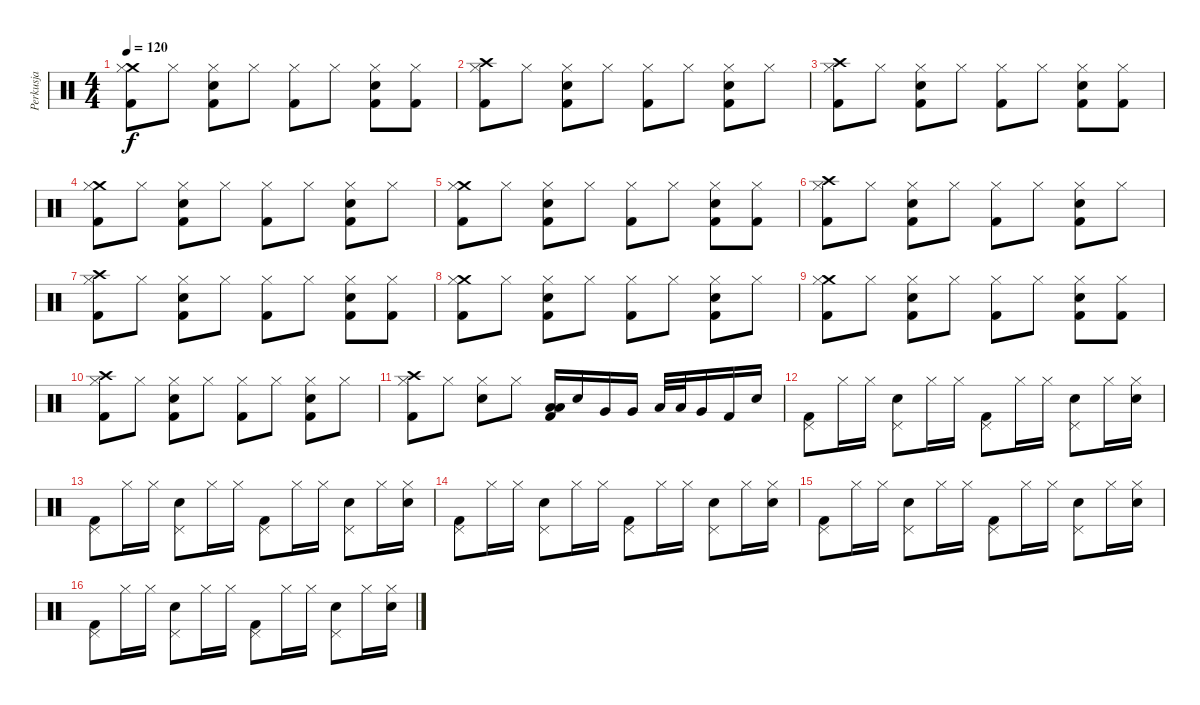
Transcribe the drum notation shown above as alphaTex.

\track ("Perkusja" "Perkusja") {instrument percussion}
\staff {score}
\articulation defaults
\ts (4 4)
\tempo 120
\clef neutral
\ks c
("Crash medium (hit)" "Hi-Hat (closed)" "Kick (hit) 2").8{dy f} "Hi-Hat (closed)".8 ("Hi-Hat (closed)" "Electric Snare (hit)" "Kick (hit) 2").8 "Hi-Hat (closed)".8 ("Hi-Hat (closed)" "Kick (hit) 2").8 "Hi-Hat (closed)".8 ("Hi-Hat (closed)" "Electric Snare (hit)" "Kick (hit) 2").8 ("Hi-Hat (closed)" "Kick (hit) 2").8 |
("Crash high (hit)" "Hi-Hat (closed)" "Kick (hit) 2").8 "Hi-Hat (closed)".8 ("Hi-Hat (closed)" "Electric Snare (hit)" "Kick (hit) 2").8 "Hi-Hat (closed)".8 ("Hi-Hat (closed)" "Kick (hit) 2").8 "Hi-Hat (closed)".8 ("Hi-Hat (closed)" "Electric Snare (hit)" "Kick (hit) 2").8 "Hi-Hat (closed)".8 |
("Crash high (hit)" "Hi-Hat (closed)" "Kick (hit) 2").8 "Hi-Hat (closed)".8 ("Hi-Hat (closed)" "Electric Snare (hit)" "Kick (hit) 2").8 "Hi-Hat (closed)".8 ("Hi-Hat (closed)" "Kick (hit) 2").8 "Hi-Hat (closed)".8 ("Hi-Hat (closed)" "Electric Snare (hit)" "Kick (hit) 2").8 ("Hi-Hat (closed)" "Kick (hit) 2").8 |
("Crash medium (hit)" "Hi-Hat (closed)" "Kick (hit) 2").8 "Hi-Hat (closed)".8 ("Hi-Hat (closed)" "Electric Snare (hit)" "Kick (hit) 2").8 "Hi-Hat (closed)".8 ("Hi-Hat (closed)" "Kick (hit) 2").8 "Hi-Hat (closed)".8 ("Hi-Hat (closed)" "Electric Snare (hit)" "Kick (hit) 2").8 "Hi-Hat (closed)".8 |
("Crash medium (hit)" "Hi-Hat (closed)" "Kick (hit) 2").8 "Hi-Hat (closed)".8 ("Hi-Hat (closed)" "Electric Snare (hit)" "Kick (hit) 2").8 "Hi-Hat (closed)".8 ("Hi-Hat (closed)" "Kick (hit) 2").8 "Hi-Hat (closed)".8 ("Hi-Hat (closed)" "Electric Snare (hit)" "Kick (hit) 2").8 ("Hi-Hat (closed)" "Kick (hit) 2").8 |
("Crash high (hit)" "Hi-Hat (closed)" "Kick (hit) 2").8 "Hi-Hat (closed)".8 ("Hi-Hat (closed)" "Electric Snare (hit)" "Kick (hit) 2").8 "Hi-Hat (closed)".8 ("Hi-Hat (closed)" "Kick (hit) 2").8 "Hi-Hat (closed)".8 ("Hi-Hat (closed)" "Electric Snare (hit)" "Kick (hit) 2").8 "Hi-Hat (closed)".8 |
("Crash high (hit)" "Hi-Hat (closed)" "Kick (hit) 2").8 "Hi-Hat (closed)".8 ("Hi-Hat (closed)" "Electric Snare (hit)" "Kick (hit) 2").8 "Hi-Hat (closed)".8 ("Hi-Hat (closed)" "Kick (hit) 2").8 "Hi-Hat (closed)".8 ("Hi-Hat (closed)" "Electric Snare (hit)" "Kick (hit) 2").8 ("Hi-Hat (closed)" "Kick (hit) 2").8 |
("Crash medium (hit)" "Hi-Hat (closed)" "Kick (hit) 2").8 "Hi-Hat (closed)".8 ("Hi-Hat (closed)" "Electric Snare (hit)" "Kick (hit) 2").8 "Hi-Hat (closed)".8 ("Hi-Hat (closed)" "Kick (hit) 2").8 "Hi-Hat (closed)".8 ("Hi-Hat (closed)" "Electric Snare (hit)" "Kick (hit) 2").8 "Hi-Hat (closed)".8 |
("Crash medium (hit)" "Hi-Hat (closed)" "Kick (hit) 2").8 "Hi-Hat (closed)".8 ("Hi-Hat (closed)" "Electric Snare (hit)" "Kick (hit) 2").8 "Hi-Hat (closed)".8 ("Hi-Hat (closed)" "Kick (hit) 2").8 "Hi-Hat (closed)".8 ("Hi-Hat (closed)" "Electric Snare (hit)" "Kick (hit) 2").8 ("Hi-Hat (closed)" "Kick (hit) 2").8 |
("Crash high (hit)" "Hi-Hat (closed)" "Kick (hit) 2").8 "Hi-Hat (closed)".8 ("Hi-Hat (closed)" "Electric Snare (hit)" "Kick (hit) 2").8 "Hi-Hat (closed)".8 ("Hi-Hat (closed)" "Kick (hit) 2").8 "Hi-Hat (closed)".8 ("Hi-Hat (closed)" "Electric Snare (hit)" "Kick (hit) 2").8 "Hi-Hat (closed)".8 |
("Crash high (hit)" "Hi-Hat (closed)" "Kick (hit) 2").8 "Hi-Hat (closed)".8 ("Hi-Hat (closed)" "Electric Snare (hit)").8 "Hi-Hat (closed)".8 ("Low Tom (hit)" "Low Tom (hit)" "Kick (hit) 2").16 "Electric Snare (hit)".16 "Very Low Tom (hit)".16 "Very Low Tom (hit)".16 "Low Tom (hit)".32 "Low Tom (hit)".32 "Very Low Tom (hit)".16 "Kick (hit) 2".16 "Electric Snare (hit)".16 |
("Pedal Hi-Hat (hit)" "Kick (hit) 2").8 "Hi-Hat (closed)".16 "Hi-Hat (closed)".16 ("Pedal Hi-Hat (hit)" "Electric Snare (hit)").8 "Hi-Hat (closed)".16 "Hi-Hat (closed)".16 ("Pedal Hi-Hat (hit)" "Kick (hit) 2").8 "Hi-Hat (closed)".16 "Hi-Hat (closed)".16 ("Pedal Hi-Hat (hit)" "Electric Snare (hit)").8 "Hi-Hat (closed)".16 ("Hi-Hat (closed)" "Electric Snare (hit)").16 |
("Pedal Hi-Hat (hit)" "Kick (hit) 2").8 "Hi-Hat (closed)".16 "Hi-Hat (closed)".16 ("Pedal Hi-Hat (hit)" "Electric Snare (hit)").8 "Hi-Hat (closed)".16 "Hi-Hat (closed)".16 ("Pedal Hi-Hat (hit)" "Kick (hit) 2").8 "Hi-Hat (closed)".16 "Hi-Hat (closed)".16 ("Pedal Hi-Hat (hit)" "Electric Snare (hit)").8 "Hi-Hat (closed)".16 ("Hi-Hat (closed)" "Electric Snare (hit)").16 |
("Pedal Hi-Hat (hit)" "Kick (hit) 2").8 "Hi-Hat (closed)".16 "Hi-Hat (closed)".16 ("Pedal Hi-Hat (hit)" "Electric Snare (hit)").8 "Hi-Hat (closed)".16 "Hi-Hat (closed)".16 ("Pedal Hi-Hat (hit)" "Kick (hit) 2").8 "Hi-Hat (closed)".16 "Hi-Hat (closed)".16 ("Pedal Hi-Hat (hit)" "Electric Snare (hit)").8 "Hi-Hat (closed)".16 ("Hi-Hat (closed)" "Electric Snare (hit)").16 |
("Pedal Hi-Hat (hit)" "Kick (hit) 2").8 "Hi-Hat (closed)".16 "Hi-Hat (closed)".16 ("Pedal Hi-Hat (hit)" "Electric Snare (hit)").8 "Hi-Hat (closed)".16 "Hi-Hat (closed)".16 ("Pedal Hi-Hat (hit)" "Kick (hit) 2").8 "Hi-Hat (closed)".16 "Hi-Hat (closed)".16 ("Pedal Hi-Hat (hit)" "Electric Snare (hit)").8 "Hi-Hat (closed)".16 ("Hi-Hat (closed)" "Electric Snare (hit)").16 |
("Pedal Hi-Hat (hit)" "Kick (hit) 2").8 "Hi-Hat (closed)".16 "Hi-Hat (closed)".16 ("Pedal Hi-Hat (hit)" "Electric Snare (hit)").8 "Hi-Hat (closed)".16 "Hi-Hat (closed)".16 ("Pedal Hi-Hat (hit)" "Kick (hit) 2").8 "Hi-Hat (closed)".16 "Hi-Hat (closed)".16 ("Pedal Hi-Hat (hit)" "Electric Snare (hit)").8 "Hi-Hat (closed)".16 ("Hi-Hat (closed)" "Electric Snare (hit)").16
